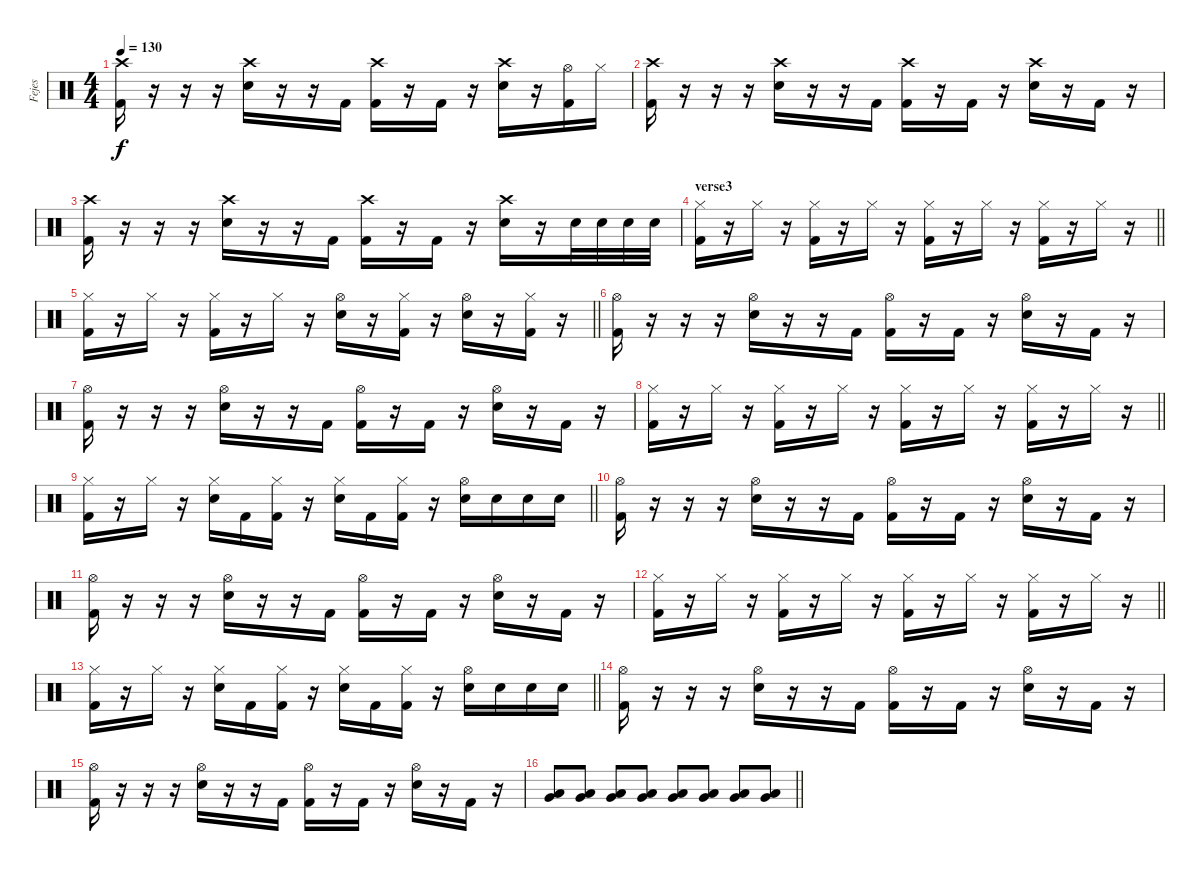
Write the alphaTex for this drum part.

\track ("Fejes" "Fejes") {instrument percussion}
\staff {score}
\articulation defaults
\ts (4 4)
\tempo 130
\clef neutral
\ks c
("Crash high (hit)" "Kick (hit) 2").16{dy f} r.16 r.16 r.16 ("Crash high (hit)" "Snare (hit) 2").16 r.16 r.16 "Kick (hit) 2".16 ("Crash high (hit)" "Kick (hit) 2").16 r.16 "Kick (hit) 2".16 r.16 ("Crash high (hit)" "Snare (hit) 2").16 r.16 ("Hi-Hat (open)" "Kick (hit) 2").16 "Hi-Hat (closed)".16 |
("Crash high (hit)" "Kick (hit) 2").16 r.16 r.16 r.16 ("Crash high (hit)" "Snare (hit) 2").16 r.16 r.16 "Kick (hit) 2".16 ("Crash high (hit)" "Kick (hit) 2").16 r.16 "Kick (hit) 2".16 r.16 ("Crash high (hit)" "Snare (hit) 2").16 r.16 "Kick (hit) 2".16 r.16 |
("Crash high (hit)" "Kick (hit) 2").16 r.16 r.16 r.16 ("Crash high (hit)" "Snare (hit) 2").16 r.16 r.16 "Kick (hit) 2".16 ("Crash high (hit)" "Kick (hit) 2").16 r.16 "Kick (hit) 2".16 r.16 ("Crash high (hit)" "Snare (hit) 2").16 r.16 "Snare (hit) 2".32 "Snare (hit) 2".32 "Snare (hit) 2".32 "Snare (hit) 2".32 |
\section ("" "verse3")
\barLineRight lightlight
("Hi-Hat (closed)" "Kick (hit) 2").16 r.16 "Hi-Hat (closed)".16 r.16 ("Hi-Hat (closed)" "Kick (hit) 2").16 r.16 "Hi-Hat (closed)".16 r.16 ("Hi-Hat (closed)" "Kick (hit) 2").16 r.16 "Hi-Hat (closed)".16 r.16 ("Hi-Hat (closed)" "Kick (hit) 2").16 r.16 "Hi-Hat (closed)".16 r.16 |
\barLineRight lightlight
("Hi-Hat (closed)" "Kick (hit) 2").16 r.16 "Hi-Hat (closed)".16 r.16 ("Hi-Hat (closed)" "Kick (hit) 2").16 r.16 "Hi-Hat (closed)".16 r.16 ("Hi-Hat (open)" "Snare (hit) 2").16 r.16 ("Hi-Hat (closed)" "Kick (hit) 2").16 r.16 ("Hi-Hat (open)" "Snare (hit) 2").16 r.16 ("Hi-Hat (closed)" "Kick (hit) 2").16 r.16 |
("Hi-Hat (open)" "Kick (hit) 2").16 r.16 r.16 r.16 ("Hi-Hat (open)" "Snare (hit) 2").16 r.16 r.16 "Kick (hit) 2".16 ("Hi-Hat (open)" "Kick (hit) 2").16 r.16 "Kick (hit) 2".16 r.16 ("Hi-Hat (open)" "Snare (hit) 2").16 r.16 "Kick (hit) 2".16 r.16 |
("Hi-Hat (open)" "Kick (hit) 2").16 r.16 r.16 r.16 ("Hi-Hat (open)" "Snare (hit) 2").16 r.16 r.16 "Kick (hit) 2".16 ("Hi-Hat (open)" "Kick (hit) 2").16 r.16 "Kick (hit) 2".16 r.16 ("Hi-Hat (open)" "Snare (hit) 2").16 r.16 "Kick (hit) 2".16 r.16 |
\barLineRight lightlight
("Hi-Hat (closed)" "Kick (hit) 2").16 r.16 "Hi-Hat (closed)".16 r.16 ("Hi-Hat (closed)" "Kick (hit) 2").16 r.16 "Hi-Hat (closed)".16 r.16 ("Hi-Hat (closed)" "Kick (hit) 2").16 r.16 "Hi-Hat (closed)".16 r.16 ("Hi-Hat (closed)" "Kick (hit) 2").16 r.16 "Hi-Hat (closed)".16 r.16 |
\barLineRight lightlight
("Hi-Hat (closed)" "Kick (hit) 2").16 r.16 "Hi-Hat (closed)".16 r.16 ("Hi-Hat (closed)" "Snare (hit) 2").16 "Kick (hit) 2".16 ("Hi-Hat (closed)" "Kick (hit) 2").16 r.16 ("Hi-Hat (closed)" "Snare (hit) 2").16 "Kick (hit) 2".16 ("Hi-Hat (closed)" "Kick (hit) 2").16 r.16 ("Hi-Hat (open)" "Snare (hit) 2").16 "Snare (hit) 2".16 "Snare (hit) 2".16 "Snare (hit) 2".16 |
("Hi-Hat (open)" "Kick (hit) 2").16 r.16 r.16 r.16 ("Hi-Hat (open)" "Snare (hit) 2").16 r.16 r.16 "Kick (hit) 2".16 ("Hi-Hat (open)" "Kick (hit) 2").16 r.16 "Kick (hit) 2".16 r.16 ("Hi-Hat (open)" "Snare (hit) 2").16 r.16 "Kick (hit) 2".16 r.16 |
("Hi-Hat (open)" "Kick (hit) 2").16 r.16 r.16 r.16 ("Hi-Hat (open)" "Snare (hit) 2").16 r.16 r.16 "Kick (hit) 2".16 ("Hi-Hat (open)" "Kick (hit) 2").16 r.16 "Kick (hit) 2".16 r.16 ("Hi-Hat (open)" "Snare (hit) 2").16 r.16 "Kick (hit) 2".16 r.16 |
\barLineRight lightlight
("Hi-Hat (closed)" "Kick (hit) 2").16 r.16 "Hi-Hat (closed)".16 r.16 ("Hi-Hat (closed)" "Kick (hit) 2").16 r.16 "Hi-Hat (closed)".16 r.16 ("Hi-Hat (closed)" "Kick (hit) 2").16 r.16 "Hi-Hat (closed)".16 r.16 ("Hi-Hat (closed)" "Kick (hit) 2").16 r.16 "Hi-Hat (closed)".16 r.16 |
\barLineRight lightlight
("Hi-Hat (closed)" "Kick (hit) 2").16 r.16 "Hi-Hat (closed)".16 r.16 ("Hi-Hat (closed)" "Snare (hit) 2").16 "Kick (hit) 2".16 ("Hi-Hat (closed)" "Kick (hit) 2").16 r.16 ("Hi-Hat (closed)" "Snare (hit) 2").16 "Kick (hit) 2".16 ("Hi-Hat (closed)" "Kick (hit) 2").16 r.16 ("Hi-Hat (open)" "Snare (hit) 2").16 "Snare (hit) 2".16 "Snare (hit) 2".16 "Snare (hit) 2".16 |
("Hi-Hat (open)" "Kick (hit) 2").16 r.16 r.16 r.16 ("Hi-Hat (open)" "Snare (hit) 2").16 r.16 r.16 "Kick (hit) 2".16 ("Hi-Hat (open)" "Kick (hit) 2").16 r.16 "Kick (hit) 2".16 r.16 ("Hi-Hat (open)" "Snare (hit) 2").16 r.16 "Kick (hit) 2".16 r.16 |
("Hi-Hat (open)" "Kick (hit) 2").16 r.16 r.16 r.16 ("Hi-Hat (open)" "Snare (hit) 2").16 r.16 r.16 "Kick (hit) 2".16 ("Hi-Hat (open)" "Kick (hit) 2").16 r.16 "Kick (hit) 2".16 r.16 ("Hi-Hat (open)" "Snare (hit) 2").16 r.16 "Kick (hit) 2".16 r.16 |
\barLineRight lightlight
("Low Tom (hit)" "Very Low Tom (hit)").8 ("Low Tom (hit)" "Very Low Tom (hit)").8 ("Low Tom (hit)" "Very Low Tom (hit)").8 ("Low Tom (hit)" "Very Low Tom (hit)").8 ("Low Tom (hit)" "Very Low Tom (hit)").8 ("Low Tom (hit)" "Very Low Tom (hit)").8 ("Low Tom (hit)" "Very Low Tom (hit)").8 ("Low Tom (hit)" "Very Low Tom (hit)").8
